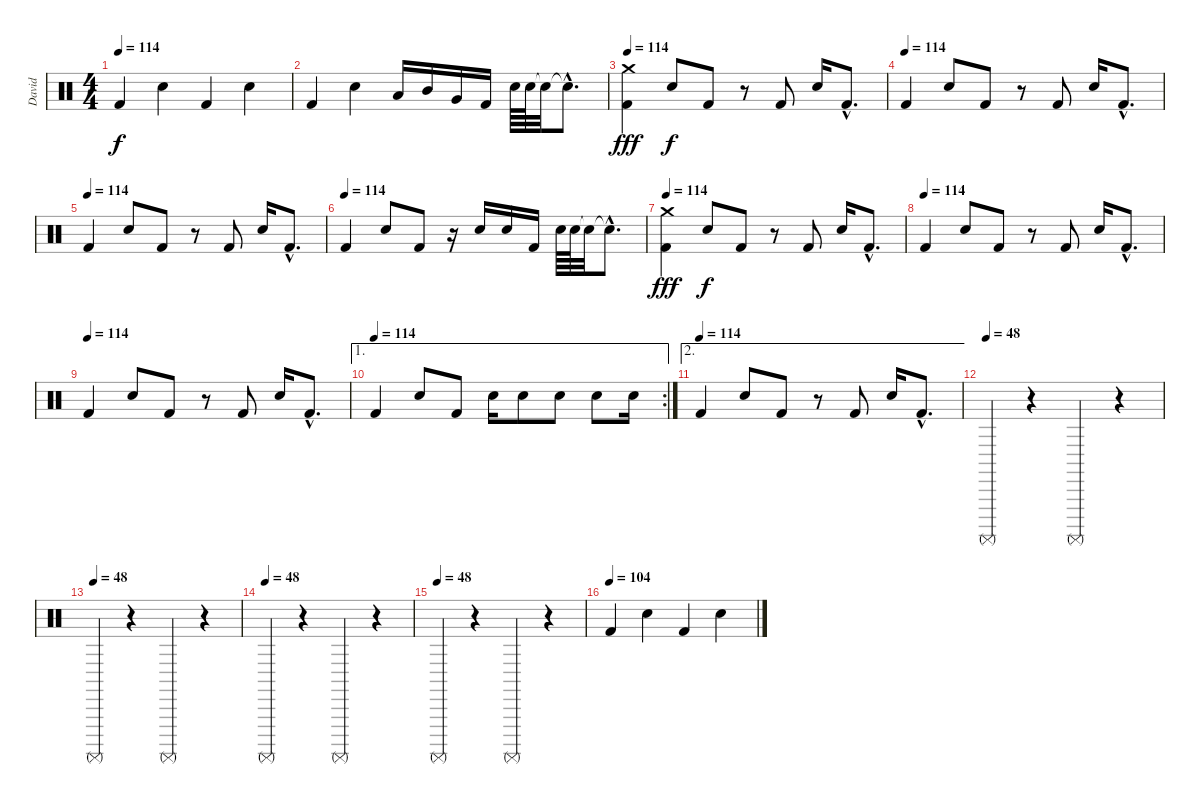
\track ("David" "David") {instrument percussion}
\staff {score}
\articulation defaults
\ts (4 4)
\tempo 114
\clef neutral
\ks c "Kick (hit) 2".4{dy f} "Snare (hit) 2".4 "Kick (hit) 2".4 "Snare (hit) 2".4
|
"Kick (hit) 2".4 "Snare (hit) 2".4 "Low Tom (hit)".16 "Mid Tom (hit)".16 "Very Low Tom (hit)".16 "Kick (hit) 2".16 "Snare (hit) 2".64 "Snare (hit) 2".64 "Snare (hit)"{t}.32 "Snare (hit)"{hac t}.8{d} |
\tempo 114
("Crash medium (hit)" "Kick (hit) 2").4{dy fff} "Snare (hit) 2".8{dy f} "Kick (hit) 2".8 r.8 "Kick (hit) 2".8 "Snare (hit) 2".16 "Kick (hit) 2"{hac}.8{d} |
\tempo (114)
"Kick (hit) 2".4 "Snare (hit) 2".8 "Kick (hit) 2".8 r.8 "Kick (hit) 2".8 "Snare (hit) 2".16 "Kick (hit) 2"{hac}.8{d} |
\tempo (114)
"Kick (hit) 2".4 "Snare (hit) 2".8 "Kick (hit) 2".8 r.8 "Kick (hit) 2".8 "Snare (hit) 2".16 "Kick (hit) 2"{hac}.8{d} |
\tempo (114)
"Kick (hit) 2".4 "Snare (hit) 2".8 "Kick (hit) 2".8 r.16 "Snare (hit) 2".16 "Snare (hit) 2".16 "Kick (hit) 2".16 "Snare (hit) 2".64 "Snare (hit) 2".64 "Snare (hit)"{t}.32 "Snare (hit) 2"{hac t}.8{d} |
\tempo 114
("Crash medium (hit)" "Kick (hit) 2").4{dy fff} "Snare (hit) 2".8{dy f} "Kick (hit) 2".8 r.8 "Kick (hit) 2".8 "Snare (hit) 2".16 "Kick (hit) 2"{hac}.8{d} |
\tempo (114)
"Kick (hit) 2".4 "Snare (hit) 2".8 "Kick (hit) 2".8 r.8 "Kick (hit) 2".8 "Snare (hit) 2".16 "Kick (hit) 2"{hac}.8{d} |
\tempo (114)
"Kick (hit) 2".4 "Snare (hit) 2".8 "Kick (hit) 2".8 r.8 "Kick (hit) 2".8 "Snare (hit) 2".16 "Kick (hit) 2"{hac}.8{d} |
\ae 1
\rc 2
\tempo (114)
"Kick (hit) 2".4 "Snare (hit) 2".8 "Kick (hit) 2".8 "Snare (hit) 2".16 "Snare (hit) 2".8 "Snare (hit) 2".8 "Snare (hit) 2".8 "Snare (hit) 2".16 |
\ae 2
\tempo (114)
"Kick (hit) 2".4 "Snare (hit) 2".8 "Kick (hit) 2".8 r.8 "Kick (hit) 2".8 "Snare (hit) 2".16 "Kick (hit) 2"{hac}.8{d} |
\tempo (48)
"Surdo (mute)".4 r.4 "Surdo (mute)".4 r.4 |
\tempo (48)
"Surdo (mute)".4 r.4 "Surdo (mute)".4 r.4 |
\tempo (48)
"Surdo (mute)".4 r.4 "Surdo (mute)".4 r.4 |
\tempo (48)
"Surdo (mute)".4 r.4 "Surdo (mute)".4 r.4 |
\tempo (104)
"Kick (hit) 2".4 "Snare (hit) 2".4 "Kick (hit) 2".4 "Snare (hit) 2".4
